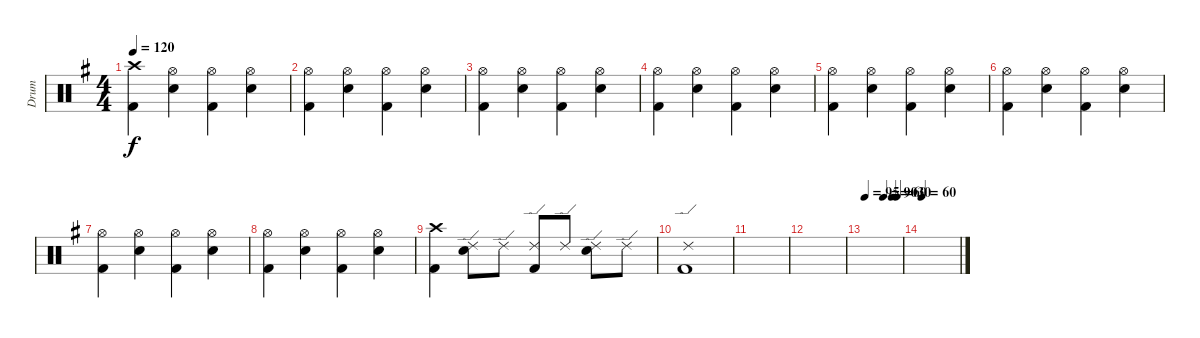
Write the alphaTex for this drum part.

\track ("Drum" "Drum") {instrument percussion}
\staff {score}
\articulation defaults
\ts (4 4)
\tempo 120
\clef neutral
\ks g
("Kick (hit) 2" "Crash high (hit)").4{dy f} ("Hi-Hat (open)" "Electric Snare (hit)").4 ("Hi-Hat (open)" "Kick (hit) 2").4 ("Hi-Hat (open)" "Electric Snare (hit)").4 |
("Hi-Hat (open)" "Kick (hit) 2").4 ("Hi-Hat (open)" "Electric Snare (hit)").4 ("Hi-Hat (open)" "Kick (hit) 2").4 ("Hi-Hat (open)" "Electric Snare (hit)").4 |
("Hi-Hat (open)" "Kick (hit) 2").4 ("Hi-Hat (open)" "Electric Snare (hit)").4 ("Hi-Hat (open)" "Kick (hit) 2").4 ("Hi-Hat (open)" "Electric Snare (hit)").4 |
("Hi-Hat (open)" "Kick (hit) 2").4 ("Hi-Hat (open)" "Electric Snare (hit)").4 ("Hi-Hat (open)" "Kick (hit) 2").4 ("Hi-Hat (open)" "Electric Snare (hit)").4 |
("Hi-Hat (open)" "Kick (hit) 2").4 ("Hi-Hat (open)" "Electric Snare (hit)").4 ("Hi-Hat (open)" "Kick (hit) 2").4 ("Hi-Hat (open)" "Electric Snare (hit)").4 |
("Hi-Hat (open)" "Kick (hit) 2").4 ("Hi-Hat (open)" "Electric Snare (hit)").4 ("Hi-Hat (open)" "Kick (hit) 2").4 ("Hi-Hat (open)" "Electric Snare (hit)").4 |
("Hi-Hat (open)" "Kick (hit) 2").4 ("Hi-Hat (open)" "Electric Snare (hit)").4 ("Hi-Hat (open)" "Kick (hit) 2").4 ("Hi-Hat (open)" "Electric Snare (hit)").4 |
("Hi-Hat (open)" "Kick (hit) 2").4 ("Hi-Hat (open)" "Electric Snare (hit)").4 ("Hi-Hat (open)" "Kick (hit) 2").4 ("Hi-Hat (open)" "Electric Snare (hit)").4 |
("Crash high (hit)" "Kick (hit) 2").4 ("Ride (edge) 2" "Electric Snare (hit)").8 "Ride (edge) 2".8 ("Ride (edge) 2" "Kick (hit) 2").8 "Ride (edge) 2".8 ("Ride (edge) 2" "Electric Snare (hit)").8 "Ride (edge) 2".8 |
("Ride (edge) 2" "Kick (hit) 2").1 |
|
|
\tempo 95
\tempo (90 0.5)
\tempo (60 0.75)
\tempo (30 0.875)
|
\tempo 60
